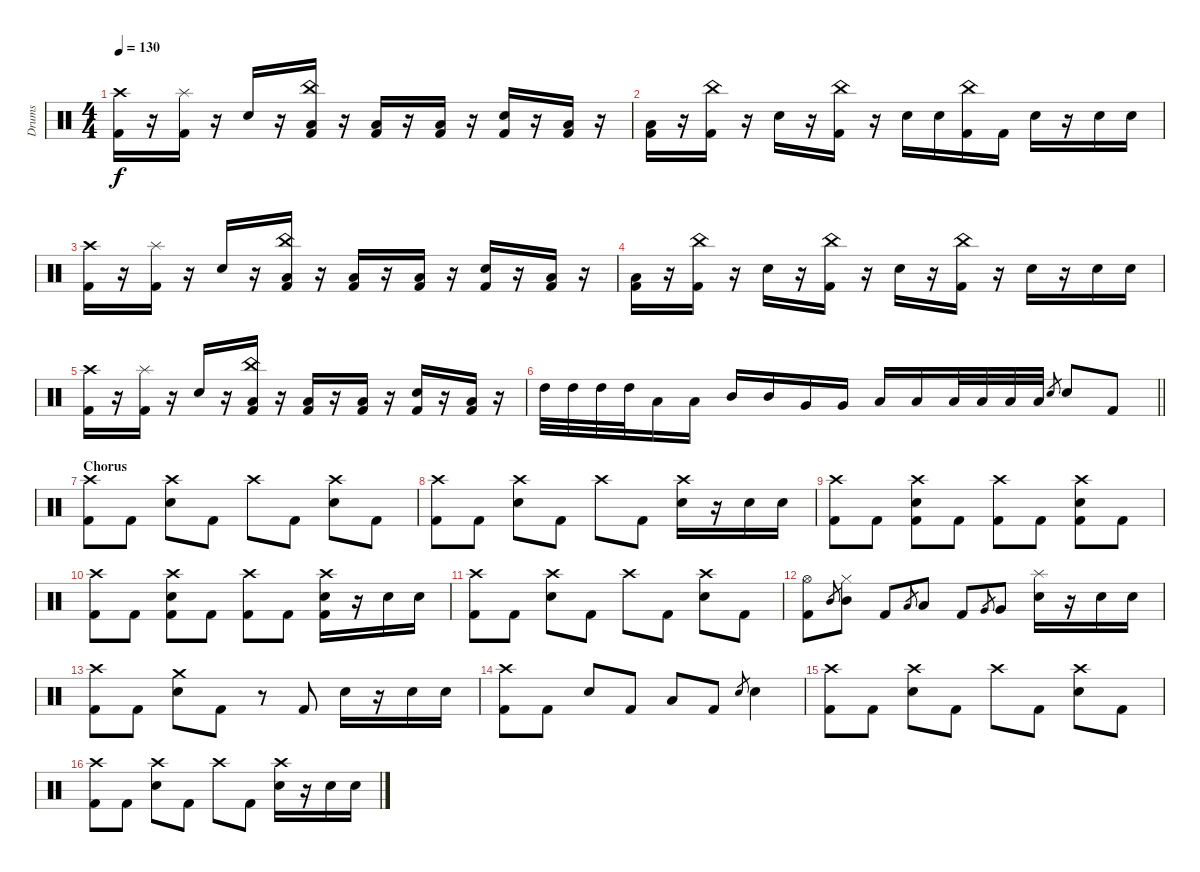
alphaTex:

\track ("Drums" "Drums") {instrument percussion}
\staff {score}
\articulation defaults
\ts (4 4)
\tempo 130
\clef neutral
\ks c
("Crash high (hit)" "Kick (hit) 2").16{dy f} r.16 ("Splash (hit)" "Kick (hit) 2").16 r.16 "Snare (hit) 2".16 r.16 ("China (hit)" "Low Floor Tom (hit)" "Kick (hit) 2").16 r.16 ("Low Floor Tom (hit)" "Kick (hit) 2").16 r.16 ("Low Floor Tom (hit)" "Kick (hit) 2").16 r.16 ("Snare (hit) 2" "Kick (hit) 2").16 r.16 ("Low Floor Tom (hit)" "Kick (hit) 2").16 r.16 |
("Low Floor Tom (hit)" "Kick (hit) 2").16 r.16 ("China (hit)" "Kick (hit) 2").16 r.16 "Snare (hit) 2".16 r.16 ("China (hit)" "Kick (hit) 2").16 r.16 "Snare (hit) 2".16 "Snare (hit) 2".16 ("China (hit)" "Kick (hit) 2").16 "Kick (hit) 2".16 "Snare (hit) 2".16 r.16 "Snare (hit) 2".16 "Snare (hit) 2".16 |
("Crash high (hit)" "Kick (hit) 2").16 r.16 ("Splash (hit)" "Kick (hit) 2").16 r.16 "Snare (hit) 2".16 r.16 ("China (hit)" "Low Floor Tom (hit)" "Kick (hit) 2").16 r.16 ("Low Floor Tom (hit)" "Kick (hit) 2").16 r.16 ("Low Floor Tom (hit)" "Kick (hit) 2").16 r.16 ("Snare (hit) 2" "Kick (hit) 2").16 r.16 ("Low Floor Tom (hit)" "Kick (hit) 2").16 r.16 |
("Low Floor Tom (hit)" "Kick (hit) 2").16 r.16 ("China (hit)" "Kick (hit) 2").16 r.16 "Snare (hit) 2".16 r.16 ("China (hit)" "Kick (hit) 2").16 r.16 "Snare (hit) 2".16 r.16 ("China (hit)" "Kick (hit) 2").16 r.16 "Snare (hit) 2".16 r.16 "Snare (hit) 2".16 "Snare (hit) 2".16 |
("Crash high (hit)" "Kick (hit) 2").16 r.16 ("Splash (hit)" "Kick (hit) 2").16 r.16 "Snare (hit) 2".16 r.16 ("China (hit)" "Low Floor Tom (hit)" "Kick (hit) 2").16 r.16 ("Low Floor Tom (hit)" "Kick (hit) 2").16 r.16 ("Low Floor Tom (hit)" "Kick (hit) 2").16 r.16 ("Snare (hit) 2" "Kick (hit) 2").16 r.16 ("Low Floor Tom (hit)" "Kick (hit) 2").16 r.16 |
\barLineRight lightlight "High Tom (hit)".32 "High Tom (hit)".32 "High Tom (hit)".32 "High Tom (hit)".32 "Low Tom (hit)".16 "Low Tom (hit)".16 "Mid Tom (hit)".16 "Mid Tom (hit)".16 "Very Low Tom (hit)".16 "Very Low Tom (hit)".16 "Low Tom (hit)".16 "Low Tom (hit)".16 "Low Floor Tom (hit)".32 "Low Floor Tom (hit)".32 "Low Floor Tom (hit)".32 "Low Floor Tom (hit)".32 "Snare (hit) 2".8{gr} "Snare (hit) 2".8 "Kick (hit) 2".8
|
\section ("" "Chorus")
("Crash high (hit)" "Kick (hit) 2").8 "Kick (hit) 2".8 ("Crash high (hit)" "Snare (hit) 2").8 "Kick (hit) 2".8 "Crash high (hit)".8 "Kick (hit) 2".8 ("Crash high (hit)" "Snare (hit) 2").8 "Kick (hit) 2".8 |
("Crash high (hit)" "Kick (hit) 2").8 "Kick (hit) 2".8 ("Crash high (hit)" "Snare (hit) 2").8 "Kick (hit) 2".8 "Crash high (hit)".8 "Kick (hit) 2".8 ("Crash high (hit)" "Snare (hit) 2").16 r.16 "Snare (hit) 2".16 "Snare (hit) 2".16 |
("Crash high (hit)" "Kick (hit) 2").8 "Kick (hit) 2".8 ("Crash high (hit)" "Snare (hit) 2" "Kick (hit) 2").8 "Kick (hit) 2".8 ("Crash high (hit)" "Kick (hit) 2").8 "Kick (hit) 2".8 ("Crash high (hit)" "Snare (hit) 2" "Kick (hit) 2").8 "Kick (hit) 2".8 |
("Crash high (hit)" "Kick (hit) 2").8 "Kick (hit) 2".8 ("Crash high (hit)" "Snare (hit) 2" "Kick (hit) 2").8 "Kick (hit) 2".8 ("Crash high (hit)" "Kick (hit) 2").8 "Kick (hit) 2".8 ("Crash high (hit)" "Snare (hit) 2" "Kick (hit) 2").16 r.16 "Snare (hit) 2".16 "Snare (hit) 2".16 |
("Crash high (hit)" "Kick (hit) 2").8 "Kick (hit) 2".8 ("Crash high (hit)" "Snare (hit) 2").8 "Kick (hit) 2".8 "Crash high (hit)".8 "Kick (hit) 2".8 ("Crash high (hit)" "Snare (hit) 2").8 "Kick (hit) 2".8 |
("Hi-Hat (open)" "Kick (hit) 2").8 "Mid Tom (hit)".8{gr} ("Hi-Hat (closed)" "Mid Tom (hit)").8 "Kick (hit) 2".8 "Low Tom (hit)".8{gr} "Low Tom (hit)".8 "Kick (hit) 2".8 "Very Low Tom (hit)".8{gr} "Very Low Tom (hit)".8 ("Splash (hit)" "Snare (hit) 2").16 r.16 "Snare (hit) 2".16 "Snare (hit) 2".16 |
("Crash high (hit)" "Kick (hit) 2").8 "Kick (hit) 2".8 ("Crash medium (hit)" "Snare (hit) 2").8 "Kick (hit) 2".8 r.8 "Kick (hit) 2".8 "Snare (hit) 2".16 r.16 "Snare (hit) 2".16 "Snare (hit) 2".16 |
("Crash high (hit)" "Kick (hit) 2").8 "Kick (hit) 2".8 "Snare (hit) 2".8 "Kick (hit) 2".8 "Low Floor Tom (hit)".8 "Kick (hit) 2".8 "Snare (hit) 2".8{gr} "Snare (hit) 2".4 |
("Crash high (hit)" "Kick (hit) 2").8 "Kick (hit) 2".8 ("Crash high (hit)" "Snare (hit) 2").8 "Kick (hit) 2".8 "Crash high (hit)".8 "Kick (hit) 2".8 ("Crash high (hit)" "Snare (hit) 2").8 "Kick (hit) 2".8 |
("Crash high (hit)" "Kick (hit) 2").8 "Kick (hit) 2".8 ("Crash high (hit)" "Snare (hit) 2").8 "Kick (hit) 2".8 "Crash high (hit)".8 "Kick (hit) 2".8 ("Crash high (hit)" "Snare (hit) 2").16 r.16 "Snare (hit) 2".16 "Snare (hit) 2".16
